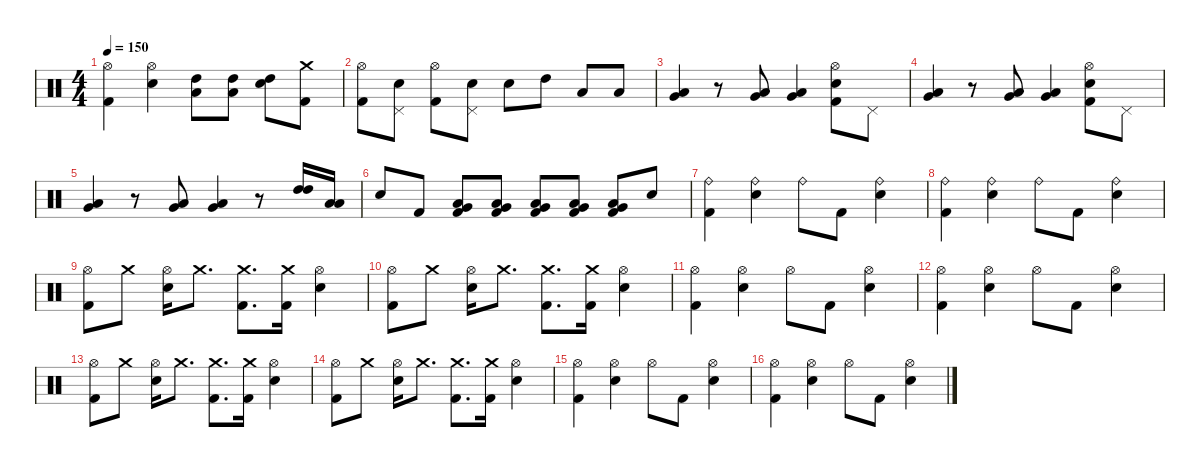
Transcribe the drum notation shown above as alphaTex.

\defaultSystemsLayout 4
\hideDynamics
\bracketExtendMode nobrackets
\singleTrackTrackNamePolicy hidden
\multiTrackTrackNamePolicy hidden
\firstSystemTrackNameMode fullname
\otherSystemsTrackNameOrientation horizontal
\track ("Percussions" "drm.") {defaultSystemsLayout 4 instrument percussion}
\staff {score}
\articulation defaults
\ts (4 4)
\tempo 150
\clef neutral
\ks c
("Hi-Hat (open)" "Kick (hit) 2").4{dy f beam Down} ("Hi-Hat (open)" "Snare (hit) 2").4{beam Down} ("High Tom (hit)" "Low Tom (hit)").8{dy ff beam Down} ("High Tom (hit)" "Low Tom (hit)").8{beam Down} ("High Tom (hit)" "Snare (hit) 2").8{dy fff beam Down} ("Crash medium (hit)" "Kick (hit) 2").8{dy ff beam Down} |
("Hi-Hat (open)" "Kick (hit) 2").8{beam Down} ("Pedal Hi-Hat (hit)" "Snare (hit) 2").8{beam Down} ("Hi-Hat (open)" "Kick (hit) 2").8{beam Down} ("Pedal Hi-Hat (hit)" "Snare (hit) 2").8{beam Down} "Snare (hit) 2".8{dy fff beam Down} "High Tom (hit)".8{dy ff beam Down} "Low Tom (hit)".8{beam Up} "Low Floor Tom (hit)".8{beam Up} |
("Very Low Tom (hit)" "Low Floor Tom (hit)").4{dy f beam Up} r.8{beam Up} ("Very Low Tom (hit)" "Low Floor Tom (hit)").8{beam Up} ("Very Low Tom (hit)" "Low Floor Tom (hit)").4{beam Up} ("Hi-Hat (open)" "Snare (hit) 2" "Kick (hit) 2").8{dy fff beam Down} "Pedal Hi-Hat (hit)".8{dy f beam Down} |
("Very Low Tom (hit)" "Low Floor Tom (hit)").4{beam Up} r.8{beam Up} ("Very Low Tom (hit)" "Low Floor Tom (hit)").8{beam Up} ("Very Low Tom (hit)" "Low Floor Tom (hit)").4{beam Up} ("Hi-Hat (open)" "Snare (hit) 2" "Kick (hit) 2").8{dy fff beam Down} "Pedal Hi-Hat (hit)".8{dy f beam Down} |
("Very Low Tom (hit)" "Low Floor Tom (hit)").4{beam Up} r.8{beam Up} ("Very Low Tom (hit)" "Low Floor Tom (hit)").8{beam Up} ("Very Low Tom (hit)" "Low Floor Tom (hit)").4{beam Up} r.8{beam Up} ("High Tom (hit)" "High Tom (hit)").16{beam Down} ("Low Tom (hit)" "Low Tom (hit)").16{beam Down} |
"Snare (hit) 2".8{dy fff beam Up} "Kick (hit) 2".8{beam Up} ("Very Low Tom (hit)" "Low Floor Tom (hit)" "Kick (hit) 2").8{dy mp beam Up} ("Very Low Tom (hit)" "Low Floor Tom (hit)" "Kick (hit) 2").8{dy mf beam Up} ("Very Low Tom (hit)" "Low Floor Tom (hit)" "Kick (hit) 2").8{beam Up} ("Very Low Tom (hit)" "Low Floor Tom (hit)" "Kick (hit) 2").8{dy f beam Up} ("Very Low Tom (hit)" "Low Floor Tom (hit)" "Kick (hit) 2").8{dy ff beam Up} "Snare (hit) 2".8{dy fff beam Up} |
("Ride (bell)" "Kick (hit) 2").4{dy ff beam Down} ("Ride (bell)" "Snare (hit) 2").4{beam Down} "Ride (bell)".8{beam Down} "Kick (hit) 2".8{dy fff beam Down} ("Ride (bell)" "Snare (hit) 2").4{dy ff beam Down} |
("Ride (bell)" "Kick (hit) 2").4{beam Down} ("Ride (bell)" "Snare (hit) 2").4{beam Down} "Ride (bell)".8{beam Down} "Kick (hit) 2".8{dy fff beam Down} ("Ride (bell)" "Snare (hit) 2").4{dy ff beam Down} |
("Hi-Hat (open)" "Kick (hit) 2").8{dy f beam Down} "Crash medium (hit)".8{dy ff beam Down} ("Hi-Hat (open)" "Snare (hit) 2").16{dy f beam Down} "Crash medium (hit)".8{d dy ff beam Down} ("Crash medium (hit)" "Kick (hit) 2").8{d beam Down} ("Crash medium (hit)" "Kick (hit) 2").16{beam Down} ("Hi-Hat (open)" "Snare (hit) 2").4{dy f beam Down} |
("Hi-Hat (open)" "Kick (hit) 2").8{beam Down} "Crash medium (hit)".8{dy ff beam Down} ("Hi-Hat (open)" "Snare (hit) 2").16{dy f beam Down} "Crash medium (hit)".8{d dy ff beam Down} ("Crash medium (hit)" "Kick (hit) 2").8{d beam Down} ("Crash medium (hit)" "Kick (hit) 2").16{beam Down} ("Hi-Hat (open)" "Snare (hit) 2").4{dy f beam Down} |
("Hi-Hat (open)" "Kick (hit) 2").4{beam Down} ("Hi-Hat (open)" "Snare (hit) 2").4{beam Down} "Hi-Hat (open)".8{beam Down} "Kick (hit) 2".8{dy fff beam Down} ("Hi-Hat (open)" "Snare (hit) 2").4{dy f beam Down} |
("Hi-Hat (open)" "Kick (hit) 2").4{beam Down} ("Hi-Hat (open)" "Snare (hit) 2").4{beam Down} "Hi-Hat (open)".8{beam Down} "Kick (hit) 2".8{dy fff beam Down} ("Hi-Hat (open)" "Snare (hit) 2").4{dy f beam Down} |
("Hi-Hat (open)" "Kick (hit) 2").8{beam Down} "Crash medium (hit)".8{dy ff beam Down} ("Hi-Hat (open)" "Snare (hit) 2").16{dy f beam Down} "Crash medium (hit)".8{d dy ff beam Down} ("Crash medium (hit)" "Kick (hit) 2").8{d beam Down} ("Crash medium (hit)" "Kick (hit) 2").16{beam Down} ("Hi-Hat (open)" "Snare (hit) 2").4{dy f beam Down} |
("Hi-Hat (open)" "Kick (hit) 2").8{beam Down} "Crash medium (hit)".8{dy ff beam Down} ("Hi-Hat (open)" "Snare (hit) 2").16{dy f beam Down} "Crash medium (hit)".8{d dy ff beam Down} ("Crash medium (hit)" "Kick (hit) 2").8{d beam Down} ("Crash medium (hit)" "Kick (hit) 2").16{beam Down} ("Hi-Hat (open)" "Snare (hit) 2").4{dy f beam Down} |
("Hi-Hat (open)" "Kick (hit) 2").4{beam Down} ("Hi-Hat (open)" "Snare (hit) 2").4{beam Down} "Hi-Hat (open)".8{beam Down} "Kick (hit) 2".8{dy fff beam Down} ("Hi-Hat (open)" "Snare (hit) 2").4{dy f beam Down} |
("Hi-Hat (open)" "Kick (hit) 2").4{beam Down} ("Hi-Hat (open)" "Snare (hit) 2").4{beam Down} "Hi-Hat (open)".8{beam Down} "Kick (hit) 2".8{dy fff beam Down} ("Hi-Hat (open)" "Snare (hit) 2").4{dy f beam Down}
